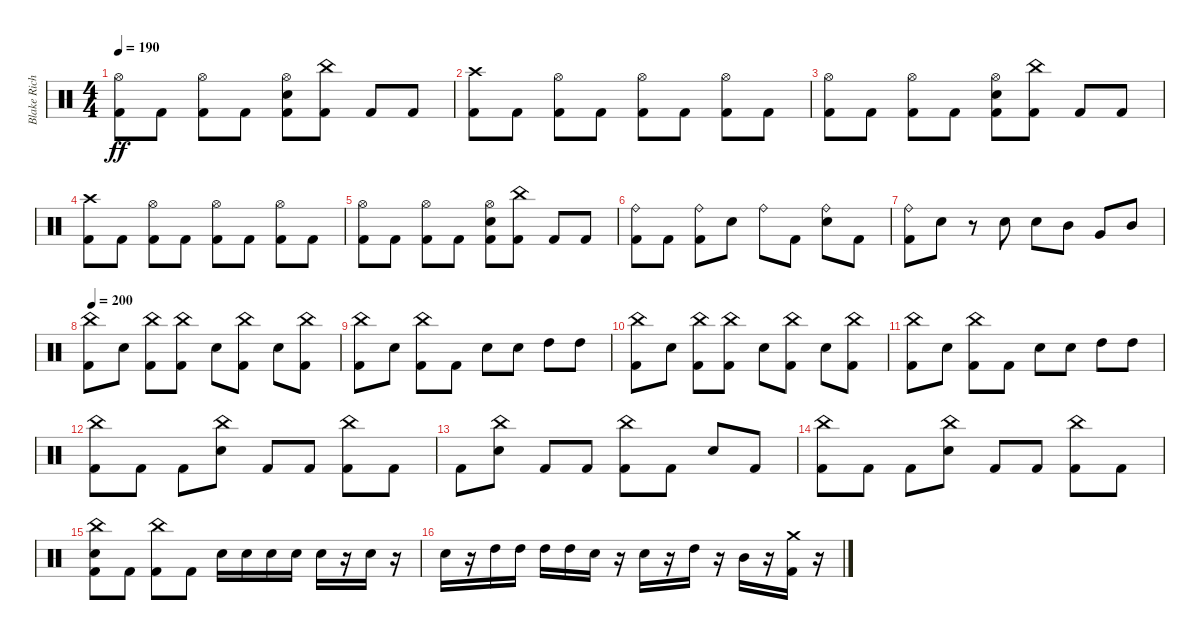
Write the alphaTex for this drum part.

\track ("Blake Richardson" "Blake Rich") {instrument percussion}
\staff {score}
\articulation defaults
\ts (4 4)
\tempo 190
\clef neutral
\ks c
("Hi-Hat (open)" "Kick (hit) 2").8{dy ff} "Kick (hit) 2".8 ("Hi-Hat (open)" "Kick (hit) 2").8 "Kick (hit) 2".8 ("Hi-Hat (open)" "Electric Snare (hit)" "Kick (hit) 2").8 ("China (hit)" "Kick (hit) 2").8 "Kick (hit) 2".8 "Kick (hit) 2".8 |
("Crash high (hit)" "Kick (hit) 2").8 "Kick (hit) 2".8 ("Hi-Hat (open)" "Kick (hit) 2").8 "Kick (hit) 2".8 ("Hi-Hat (open)" "Kick (hit) 2").8 "Kick (hit) 2".8 ("Hi-Hat (open)" "Kick (hit) 2").8 "Kick (hit) 2".8 |
("Hi-Hat (open)" "Kick (hit) 2").8 "Kick (hit) 2".8 ("Hi-Hat (open)" "Kick (hit) 2").8 "Kick (hit) 2".8 ("Hi-Hat (open)" "Electric Snare (hit)" "Kick (hit) 2").8 ("China (hit)" "Kick (hit) 2").8 "Kick (hit) 2".8 "Kick (hit) 2".8 |
("Crash high (hit)" "Kick (hit) 2").8 "Kick (hit) 2".8 ("Hi-Hat (open)" "Kick (hit) 2").8 "Kick (hit) 2".8 ("Hi-Hat (open)" "Kick (hit) 2").8 "Kick (hit) 2".8 ("Hi-Hat (open)" "Kick (hit) 2").8 "Kick (hit) 2".8 |
("Hi-Hat (open)" "Kick (hit) 2").8 "Kick (hit) 2".8 ("Hi-Hat (open)" "Kick (hit) 2").8 "Kick (hit) 2".8 ("Hi-Hat (open)" "Electric Snare (hit)" "Kick (hit) 2").8 ("China (hit)" "Kick (hit) 2").8 "Kick (hit) 2".8 "Kick (hit) 2".8 |
("Ride (bell)" "Kick (hit) 2").8 "Kick (hit) 2".8 ("Ride (bell)" "Kick (hit) 2").8 "Electric Snare (hit)".8 "Ride (bell)".8 "Kick (hit) 2".8 ("Ride (bell)" "Electric Snare (hit)").8 "Kick (hit) 2".8 |
("Ride (bell)" "Kick (hit) 2").8 "Electric Snare (hit)".8 r.8 "Electric Snare (hit)".8 "Electric Snare (hit)".8 "Mid Tom (hit)".8 "Very Low Tom (hit)".8 "Mid Tom (hit)".8 |
\tempo 200
("China (hit)" "Kick (hit) 2").8 "Electric Snare (hit)".8 ("China (hit)" "Kick (hit) 2").8 ("China (hit)" "Kick (hit) 2").8 "Electric Snare (hit)".8 ("China (hit)" "Kick (hit) 2").8 "Electric Snare (hit)".8 ("China (hit)" "Kick (hit) 2").8 |
("China (hit)" "Kick (hit) 2").8 "Electric Snare (hit)".8 ("China (hit)" "Kick (hit) 2").8 "Kick (hit) 2".8 "Electric Snare (hit)".8 "Electric Snare (hit)".8 "High Tom (hit)".8 "High Tom (hit)".8 |
("China (hit)" "Kick (hit) 2").8 "Electric Snare (hit)".8 ("China (hit)" "Kick (hit) 2").8 ("China (hit)" "Kick (hit) 2").8 "Electric Snare (hit)".8 ("China (hit)" "Kick (hit) 2").8 "Electric Snare (hit)".8 ("China (hit)" "Kick (hit) 2").8 |
("China (hit)" "Kick (hit) 2").8 "Electric Snare (hit)".8 ("China (hit)" "Kick (hit) 2").8 "Kick (hit) 2".8 "Electric Snare (hit)".8 "Electric Snare (hit)".8 "High Tom (hit)".8 "High Tom (hit)".8 |
("China (hit)" "Kick (hit) 2").8 "Kick (hit) 2".8 "Kick (hit) 2".8 ("China (hit)" "Electric Snare (hit)").8 "Kick (hit) 2".8 "Kick (hit) 2".8 ("China (hit)" "Kick (hit) 2").8 "Kick (hit) 2".8 |
"Kick (hit) 2".8 ("China (hit)" "Electric Snare (hit)").8 "Kick (hit) 2".8 "Kick (hit) 2".8 ("China (hit)" "Kick (hit) 2").8 "Kick (hit) 2".8 "Electric Snare (hit)".8 "Kick (hit) 2".8 |
("China (hit)" "Kick (hit) 2").8 "Kick (hit) 2".8 "Kick (hit) 2".8 ("China (hit)" "Electric Snare (hit)").8 "Kick (hit) 2".8 "Kick (hit) 2".8 ("China (hit)" "Kick (hit) 2").8 "Kick (hit) 2".8 |
("China (hit)" "Electric Snare (hit)" "Kick (hit) 2").8 "Kick (hit) 2".8 ("China (hit)" "Kick (hit) 2").8 "Kick (hit) 2".8 "Electric Snare (hit)".16 "Electric Snare (hit)".16 "Electric Snare (hit)".16 "Electric Snare (hit)".16 "Electric Snare (hit)".16 r.16 "Electric Snare (hit)".16 r.16 |
"Electric Snare (hit)".16 r.16 "High Tom (hit)".16 "High Tom (hit)".16 "High Tom (hit)".16 "High Tom (hit)".16 "Electric Snare (hit)".16 r.16 "Electric Snare (hit)".16 r.16 "High Tom (hit)".16 r.16 "Mid Tom (hit)".16 r.16 ("Crash medium (hit)" "Kick (hit) 2").16 r.16
